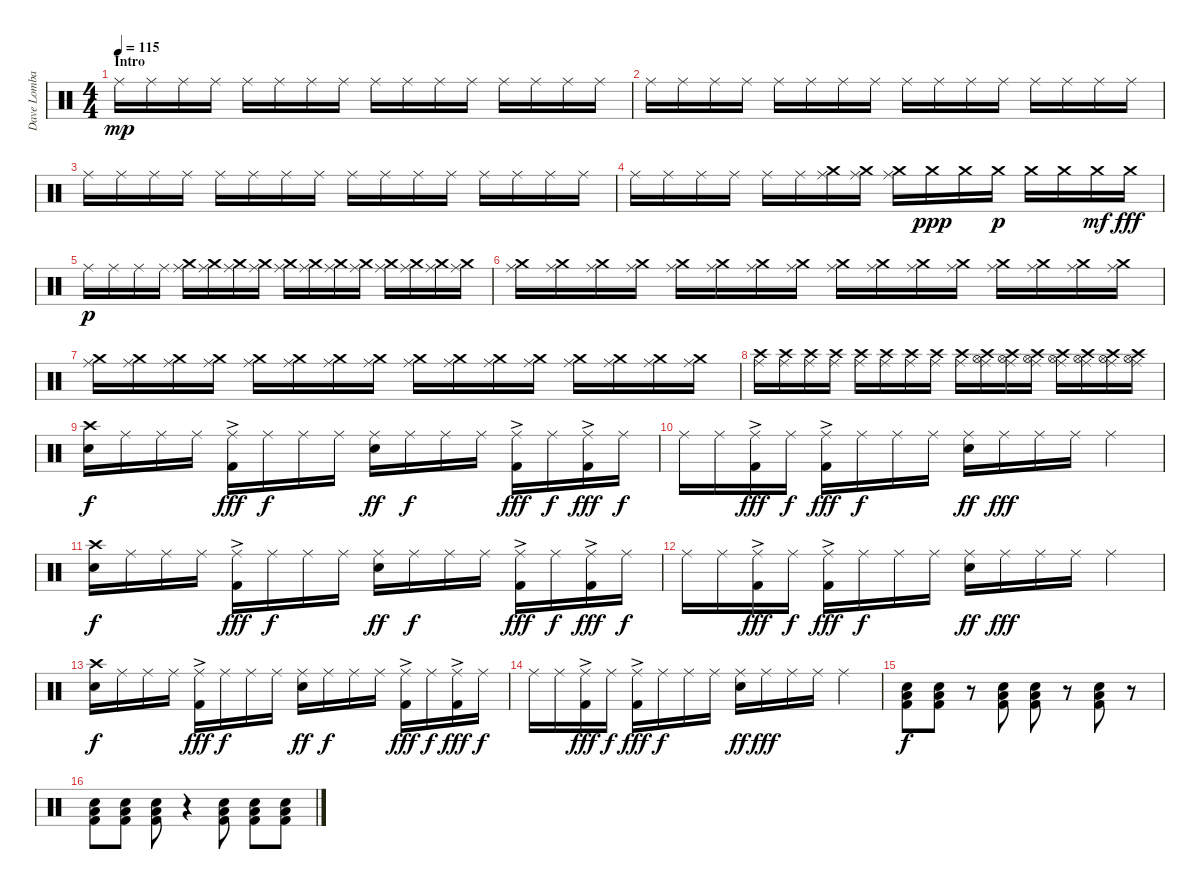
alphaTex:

\track ("Dave Lombardo" "Dave Lomba") {instrument percussion}
\staff {score}
\articulation defaults
\ts (4 4)
\section ("" "Intro")
\tempo 115
\clef neutral
\ks c "Ride (middle)".16{dy mp volume 9} "Ride (middle)".16 "Ride (middle)".16 "Ride (middle)".16 "Ride (middle)".16 "Ride (middle)".16 "Ride (middle)".16 "Ride (middle)".16 "Ride (middle)".16 "Ride (middle)".16 "Ride (middle)".16 "Ride (middle)".16 "Ride (middle)".16 "Ride (middle)".16 "Ride (middle)".16 "Ride (middle)".16
|
"Ride (middle)".16 "Ride (middle)".16 "Ride (middle)".16 "Ride (middle)".16 "Ride (middle)".16 "Ride (middle)".16 "Ride (middle)".16 "Ride (middle)".16 "Ride (middle)".16 "Ride (middle)".16 "Ride (middle)".16 "Ride (middle)".16 "Ride (middle)".16 "Ride (middle)".16 "Ride (middle)".16 "Ride (middle)".16 |
"Ride (middle)".16 "Ride (middle)".16 "Ride (middle)".16 "Ride (middle)".16 "Ride (middle)".16 "Ride (middle)".16 "Ride (middle)".16 "Ride (middle)".16 "Ride (middle)".16 "Ride (middle)".16 "Ride (middle)".16 "Ride (middle)".16 "Ride (middle)".16 "Ride (middle)".16 "Ride (middle)".16 "Ride (middle)".16 |
"Ride (middle)".16 "Ride (middle)".16 "Ride (middle)".16 "Ride (middle)".16 "Ride (middle)".16 "Ride (middle)".16 ("Crash medium (hit)" "Ride (middle)").16 ("Crash medium (hit)" "Ride (middle)").16 ("Crash medium (hit)" "Ride (middle)").16 "Crash medium (hit)".16{dy ppp} "Crash medium (hit)".16 "Crash medium (hit)".16{dy p} "Crash medium (hit)".16 "Crash medium (hit)".16 "Crash medium (hit)".16{dy mf} "Crash medium (hit)".16{dy fff} |
"Ride (middle)".16{dy p} "Ride (middle)".16 "Ride (middle)".16 "Ride (middle)".16 ("Crash medium (hit)" "Ride (middle)").16 ("Crash medium (hit)" "Ride (middle)").16 ("Crash medium (hit)" "Ride (middle)").16 ("Crash medium (hit)" "Ride (middle)").16 ("Crash medium (hit)" "Ride (middle)").16 ("Crash medium (hit)" "Ride (middle)").16 ("Crash medium (hit)" "Ride (middle)").16 ("Crash medium (hit)" "Ride (middle)").16 ("Crash medium (hit)" "Ride (middle)").16 ("Crash medium (hit)" "Ride (middle)").16 ("Crash medium (hit)" "Ride (middle)").16 ("Crash medium (hit)" "Ride (middle)").16 |
("Crash medium (hit)" "Ride (middle)").16 ("Crash medium (hit)" "Ride (middle)").16 ("Crash medium (hit)" "Ride (middle)").16 ("Crash medium (hit)" "Ride (middle)").16 ("Crash medium (hit)" "Ride (middle)").16 ("Crash medium (hit)" "Ride (middle)").16 ("Crash medium (hit)" "Ride (middle)").16 ("Crash medium (hit)" "Ride (middle)").16 ("Crash medium (hit)" "Ride (middle)").16 ("Crash medium (hit)" "Ride (middle)").16 ("Crash medium (hit)" "Ride (middle)").16 ("Crash medium (hit)" "Ride (middle)").16 ("Crash medium (hit)" "Ride (middle)").16 ("Crash medium (hit)" "Ride (middle)").16 ("Crash medium (hit)" "Ride (middle)").16 ("Crash medium (hit)" "Ride (middle)").16 |
("Crash medium (hit)" "Ride (middle)").16 ("Crash medium (hit)" "Ride (middle)").16 ("Crash medium (hit)" "Ride (middle)").16 ("Crash medium (hit)" "Ride (middle)").16 ("Crash medium (hit)" "Ride (middle)").16 ("Crash medium (hit)" "Ride (middle)").16 ("Crash medium (hit)" "Ride (middle)").16 ("Crash medium (hit)" "Ride (middle)").16 ("Crash medium (hit)" "Ride (middle)").16 ("Crash medium (hit)" "Ride (middle)").16 ("Crash medium (hit)" "Ride (middle)").16 ("Crash medium (hit)" "Ride (middle)").16 ("Crash medium (hit)" "Ride (middle)").16 ("Crash medium (hit)" "Ride (middle)").16 ("Crash medium (hit)" "Ride (middle)").16 ("Crash medium (hit)" "Ride (middle)").16 |
("Crash high (hit)" "Ride (middle)").16 ("Crash high (hit)" "Ride (middle)").16 ("Crash high (hit)" "Ride (middle)").16 ("Crash high (hit)" "Ride (middle)").16 ("Crash high (hit)" "Ride (middle)").16 ("Crash high (hit)" "Ride (middle)").16 ("Crash high (hit)" "Ride (middle)").16 ("Crash high (hit)" "Ride (middle)").16 ("Crash high (hit)" "Ride (middle)").16 ("Crash high (hit)" "Hi-Hat (open)" "Ride (middle)").16 ("Crash high (hit)" "Hi-Hat (open)" "Ride (middle)").16 ("Crash high (hit)" "Hi-Hat (open)" "Ride (middle)").16 ("Crash high (hit)" "Hi-Hat (open)" "Ride (middle)").16 ("Crash high (hit)" "Hi-Hat (open)" "Ride (middle)").16 ("Crash high (hit)" "Hi-Hat (open)" "Ride (middle)").16 ("Crash high (hit)" "Hi-Hat (open)" "Ride (middle)").16 |
("Crash high (hit)" "Snare (hit) 2").16{dy f volume 16} "Ride (middle)".16 "Ride (middle)".16 "Ride (middle)".16 ("Ride (middle)" "Kick (hit) 2"{ac}).16{dy fff} "Ride (middle)".16{dy f} "Ride (middle)".16 "Ride (middle)".16 ("Ride (middle)" "Snare (hit) 2").16{dy ff} "Ride (middle)".16{dy f} "Ride (middle)".16 "Ride (middle)".16 ("Ride (middle)" "Kick (hit) 2"{ac}).16{dy fff} "Ride (middle)".16{dy f} ("Ride (middle)" "Kick (hit) 2"{ac}).16{dy fff} "Ride (middle)".16{dy f} |
"Ride (middle)".16 "Ride (middle)".16 ("Ride (middle)" "Kick (hit) 2"{ac}).16{dy fff} "Ride (middle)".16{dy f} ("Ride (middle)" "Kick (hit) 2"{ac}).16{dy fff} "Ride (middle)".16{dy f} "Ride (middle)".16 "Ride (middle)".16 ("Ride (middle)" "Snare (hit) 2").16{dy ff} "Ride (middle)".16{dy fff} "Ride (middle)".16 "Ride (middle)".16 "Ride (middle)".4 |
("Crash high (hit)" "Snare (hit) 2").16{dy f} "Ride (middle)".16 "Ride (middle)".16 "Ride (middle)".16 ("Ride (middle)" "Kick (hit) 2"{ac}).16{dy fff} "Ride (middle)".16{dy f} "Ride (middle)".16 "Ride (middle)".16 ("Ride (middle)" "Snare (hit) 2").16{dy ff} "Ride (middle)".16{dy f} "Ride (middle)".16 "Ride (middle)".16 ("Ride (middle)" "Kick (hit) 2"{ac}).16{dy fff} "Ride (middle)".16{dy f} ("Ride (middle)" "Kick (hit) 2"{ac}).16{dy fff} "Ride (middle)".16{dy f} |
"Ride (middle)".16 "Ride (middle)".16 ("Ride (middle)" "Kick (hit) 2"{ac}).16{dy fff} "Ride (middle)".16{dy f} ("Ride (middle)" "Kick (hit) 2"{ac}).16{dy fff} "Ride (middle)".16{dy f} "Ride (middle)".16 "Ride (middle)".16 ("Ride (middle)" "Snare (hit) 2").16{dy ff} "Ride (middle)".16{dy fff} "Ride (middle)".16 "Ride (middle)".16 "Ride (middle)".4 |
("Crash high (hit)" "Snare (hit) 2").16{dy f} "Ride (middle)".16 "Ride (middle)".16 "Ride (middle)".16 ("Ride (middle)" "Kick (hit) 2"{ac}).16{dy fff} "Ride (middle)".16{dy f} "Ride (middle)".16 "Ride (middle)".16 ("Ride (middle)" "Snare (hit) 2").16{dy ff} "Ride (middle)".16{dy f} "Ride (middle)".16 "Ride (middle)".16 ("Ride (middle)" "Kick (hit) 2"{ac}).16{dy fff} "Ride (middle)".16{dy f} ("Ride (middle)" "Kick (hit) 2"{ac}).16{dy fff} "Ride (middle)".16{dy f} |
"Ride (middle)".16 "Ride (middle)".16 ("Ride (middle)" "Kick (hit) 2"{ac}).16{dy fff} "Ride (middle)".16{dy f} ("Ride (middle)" "Kick (hit) 2"{ac}).16{dy fff} "Ride (middle)".16{dy f} "Ride (middle)".16 "Ride (middle)".16 ("Ride (middle)" "Snare (hit) 2").16{dy ff} "Ride (middle)".16{dy fff} "Ride (middle)".16 "Ride (middle)".16 "Ride (middle)".4 |
("Low Floor Tom (hit)" "Snare (hit) 2" "Kick (hit) 2").8{dy f} ("Low Floor Tom (hit)" "Snare (hit) 2" "Kick (hit) 2").8 r.8 ("Low Floor Tom (hit)" "Snare (hit) 2" "Kick (hit) 2").8 ("Low Floor Tom (hit)" "Snare (hit) 2" "Kick (hit) 2").8 r.8 ("Low Floor Tom (hit)" "Snare (hit) 2" "Kick (hit) 2").8 r.8 |
("Low Floor Tom (hit)" "Snare (hit) 2" "Kick (hit) 2").8 ("Low Floor Tom (hit)" "Snare (hit) 2" "Kick (hit) 2").8 ("Low Floor Tom (hit)" "Snare (hit) 2" "Kick (hit) 2").8 r.4 ("Low Floor Tom (hit)" "Snare (hit) 2" "Kick (hit) 2").8 ("Low Floor Tom (hit)" "Snare (hit) 2" "Kick (hit) 2").8 ("Low Floor Tom (hit)" "Snare (hit) 2" "Kick (hit) 2").8
